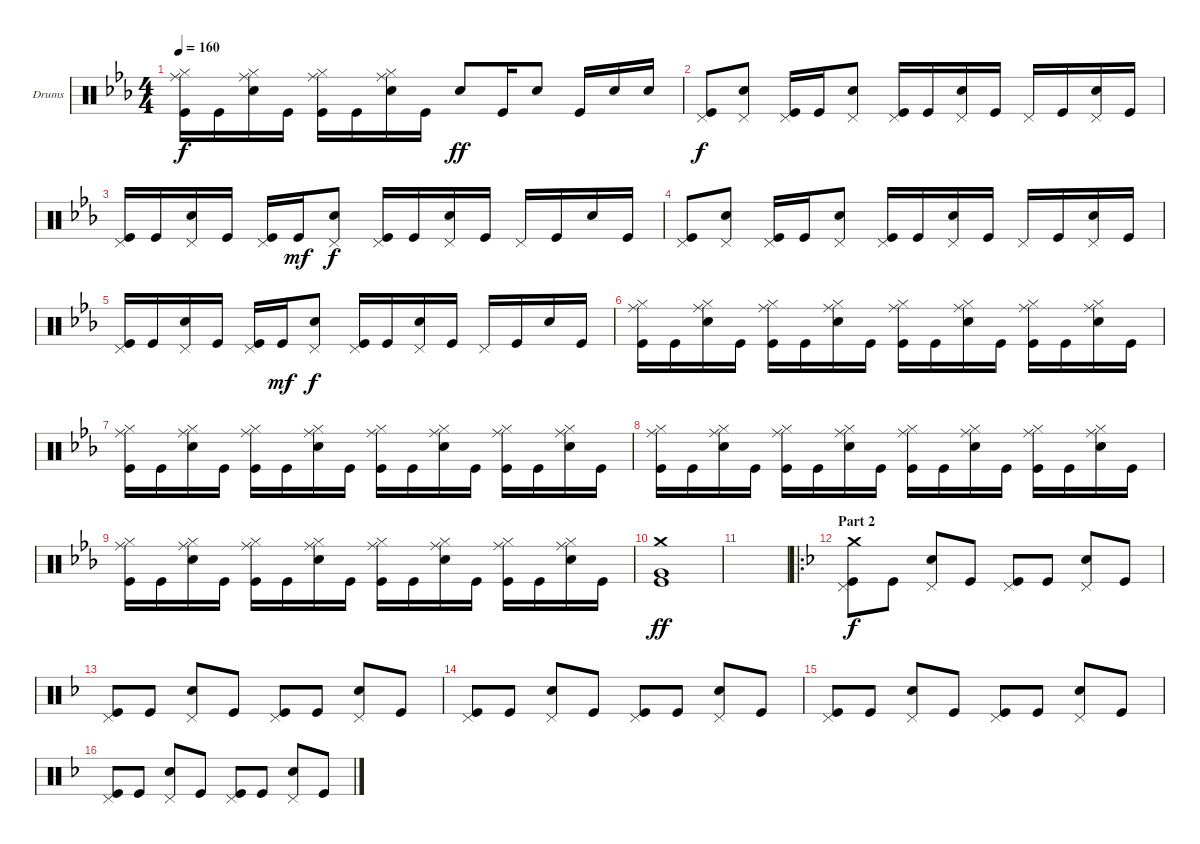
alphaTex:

\defaultSystemsLayout 4
\bracketExtendMode groupsimilarinstruments
\firstSystemTrackNameOrientation horizontal
\otherSystemsTrackNameOrientation horizontal
\track ("Drumkit" "Drums") {instrument percussion}
\staff {score}
\articulation defaults
\ts (4 4)
\tempo 160
\clef neutral
\ks cminor
("Kick (hit)" "Ride (middle)" "Hi-Hat (closed)").16{dy f} "Kick (hit)".16 ("Snare (hit) 2" "Hi-Hat (closed)" "Ride (middle)").16 "Kick (hit)".16 ("Kick (hit)" "Hi-Hat (closed)" "Ride (middle)").16 "Kick (hit)".16 ("Snare (hit) 2" "Hi-Hat (closed)" "Ride (middle)").16 "Kick (hit)".16 "Snare (hit) 2".8{dy ff} "Kick (hit)".16 "Snare (hit) 2".8 "Kick (hit)".16 "Snare (hit) 2".16 "Snare (hit) 2".16 |
("Kick (hit)" "Pedal Hi-Hat (hit)").8{dy f} ("Snare (hit) 2" "Pedal Hi-Hat (hit)").8 ("Kick (hit)" "Pedal Hi-Hat (hit)").16 "Kick (hit)".16 ("Snare (hit) 2" "Pedal Hi-Hat (hit)").8 ("Kick (hit)" "Pedal Hi-Hat (hit)").16 "Kick (hit)".16 ("Snare (hit) 2" "Pedal Hi-Hat (hit)").16 "Kick (hit)".16 "Pedal Hi-Hat (hit)".16 "Kick (hit)".16 ("Snare (hit) 2" "Pedal Hi-Hat (hit)").16 "Kick (hit)".16 |
("Kick (hit)" "Pedal Hi-Hat (hit)").16 "Kick (hit)".16 ("Snare (hit) 2" "Pedal Hi-Hat (hit)").16 "Kick (hit)".16 ("Kick (hit)" "Pedal Hi-Hat (hit)").16 "Kick (hit)".16{dy mf} ("Snare (hit) 2" "Pedal Hi-Hat (hit)").8{dy f} ("Kick (hit)" "Pedal Hi-Hat (hit)").16 "Kick (hit)".16 ("Snare (hit) 2" "Pedal Hi-Hat (hit)").16 "Kick (hit)".16 "Pedal Hi-Hat (hit)".16 "Kick (hit)".16 "Snare (hit) 2".16 "Kick (hit)".16 |
("Kick (hit)" "Pedal Hi-Hat (hit)").8 ("Snare (hit) 2" "Pedal Hi-Hat (hit)").8 ("Kick (hit)" "Pedal Hi-Hat (hit)").16 "Kick (hit)".16 ("Snare (hit) 2" "Pedal Hi-Hat (hit)").8 ("Kick (hit)" "Pedal Hi-Hat (hit)").16 "Kick (hit)".16 ("Snare (hit) 2" "Pedal Hi-Hat (hit)").16 "Kick (hit)".16 "Pedal Hi-Hat (hit)".16 "Kick (hit)".16 ("Snare (hit) 2" "Pedal Hi-Hat (hit)").16 "Kick (hit)".16 |
("Kick (hit)" "Pedal Hi-Hat (hit)").16 "Kick (hit)".16 ("Snare (hit) 2" "Pedal Hi-Hat (hit)").16 "Kick (hit)".16 ("Kick (hit)" "Pedal Hi-Hat (hit)").16 "Kick (hit)".16{dy mf} ("Snare (hit) 2" "Pedal Hi-Hat (hit)").8{dy f} ("Kick (hit)" "Pedal Hi-Hat (hit)").16 "Kick (hit)".16 ("Snare (hit) 2" "Pedal Hi-Hat (hit)").16 "Kick (hit)".16 "Pedal Hi-Hat (hit)".16 "Kick (hit)".16 "Snare (hit) 2".16 "Kick (hit)".16 |
("Kick (hit)" "Ride (middle)" "Hi-Hat (closed)").16 "Kick (hit)".16 ("Snare (hit) 2" "Hi-Hat (closed)" "Ride (middle)").16 "Kick (hit)".16 ("Kick (hit)" "Hi-Hat (closed)" "Ride (middle)").16 "Kick (hit)".16 ("Snare (hit) 2" "Hi-Hat (closed)" "Ride (middle)").16 "Kick (hit)".16 ("Kick (hit)" "Hi-Hat (closed)" "Ride (middle)").16 "Kick (hit)".16 ("Snare (hit) 2" "Hi-Hat (closed)" "Ride (middle)").16 "Kick (hit)".16 ("Kick (hit)" "Hi-Hat (closed)" "Ride (middle)").16 "Kick (hit)".16 ("Snare (hit) 2" "Hi-Hat (closed)" "Ride (middle)").16 "Kick (hit)".16 |
("Kick (hit)" "Ride (middle)" "Hi-Hat (closed)").16 "Kick (hit)".16 ("Snare (hit) 2" "Hi-Hat (closed)" "Ride (middle)").16 "Kick (hit)".16 ("Kick (hit)" "Hi-Hat (closed)" "Ride (middle)").16 "Kick (hit)".16 ("Snare (hit) 2" "Hi-Hat (closed)" "Ride (middle)").16 "Kick (hit)".16 ("Kick (hit)" "Hi-Hat (closed)" "Ride (middle)").16 "Kick (hit)".16 ("Snare (hit) 2" "Hi-Hat (closed)" "Ride (middle)").16 "Kick (hit)".16 ("Kick (hit)" "Hi-Hat (closed)" "Ride (middle)").16 "Kick (hit)".16 ("Snare (hit) 2" "Hi-Hat (closed)" "Ride (middle)").16 "Kick (hit)".16 |
("Kick (hit)" "Ride (middle)" "Hi-Hat (closed)").16 "Kick (hit)".16 ("Snare (hit) 2" "Hi-Hat (closed)" "Ride (middle)").16 "Kick (hit)".16 ("Kick (hit)" "Hi-Hat (closed)" "Ride (middle)").16 "Kick (hit)".16 ("Snare (hit) 2" "Hi-Hat (closed)" "Ride (middle)").16 "Kick (hit)".16 ("Kick (hit)" "Hi-Hat (closed)" "Ride (middle)").16 "Kick (hit)".16 ("Snare (hit) 2" "Hi-Hat (closed)" "Ride (middle)").16 "Kick (hit)".16 ("Kick (hit)" "Hi-Hat (closed)" "Ride (middle)").16 "Kick (hit)".16 ("Snare (hit) 2" "Hi-Hat (closed)" "Ride (middle)").16 "Kick (hit)".16 |
("Kick (hit)" "Ride (middle)" "Hi-Hat (closed)").16 "Kick (hit)".16 ("Snare (hit) 2" "Hi-Hat (closed)" "Ride (middle)").16 "Kick (hit)".16 ("Kick (hit)" "Hi-Hat (closed)" "Ride (middle)").16 "Kick (hit)".16 ("Snare (hit) 2" "Hi-Hat (closed)" "Ride (middle)").16 "Kick (hit)".16 ("Kick (hit)" "Hi-Hat (closed)" "Ride (middle)").16 "Kick (hit)".16 ("Snare (hit) 2" "Hi-Hat (closed)" "Ride (middle)").16 "Kick (hit)".16 ("Kick (hit)" "Hi-Hat (closed)" "Ride (middle)").16 "Kick (hit)".16 ("Snare (hit) 2" "Hi-Hat (closed)" "Ride (middle)").16 "Kick (hit)".16 |
("Very Low Tom (hit)" "Crash medium (hit)" "Kick (hit)").1{dy ff} |
|
\ro
\section ("" "Part 2")
\ks dminor
("Kick (hit)" "Pedal Hi-Hat (hit)" "Crash medium (hit)").8{dy f} "Kick (hit)".8 ("Snare (hit) 2" "Pedal Hi-Hat (hit)").8 "Kick (hit)".8 ("Kick (hit)" "Pedal Hi-Hat (hit)").8 "Kick (hit)".8 ("Snare (hit) 2" "Pedal Hi-Hat (hit)").8 "Kick (hit)".8 |
("Kick (hit)" "Pedal Hi-Hat (hit)").8 "Kick (hit)".8 ("Snare (hit) 2" "Pedal Hi-Hat (hit)").8 "Kick (hit)".8 ("Kick (hit)" "Pedal Hi-Hat (hit)").8 "Kick (hit)".8 ("Snare (hit) 2" "Pedal Hi-Hat (hit)").8 "Kick (hit)".8 |
("Kick (hit)" "Pedal Hi-Hat (hit)").8 "Kick (hit)".8 ("Snare (hit) 2" "Pedal Hi-Hat (hit)").8 "Kick (hit)".8 ("Kick (hit)" "Pedal Hi-Hat (hit)").8 "Kick (hit)".8 ("Snare (hit) 2" "Pedal Hi-Hat (hit)").8 "Kick (hit)".8 |
("Kick (hit)" "Pedal Hi-Hat (hit)").8 "Kick (hit)".8 ("Snare (hit) 2" "Pedal Hi-Hat (hit)").8 "Kick (hit)".8 ("Kick (hit)" "Pedal Hi-Hat (hit)").8 "Kick (hit)".8 ("Snare (hit) 2" "Pedal Hi-Hat (hit)").8 "Kick (hit)".8 |
("Kick (hit)" "Pedal Hi-Hat (hit)").8 "Kick (hit)".8 ("Snare (hit) 2" "Pedal Hi-Hat (hit)").8 "Kick (hit)".8 ("Kick (hit)" "Pedal Hi-Hat (hit)").8 "Kick (hit)".8 ("Snare (hit) 2" "Pedal Hi-Hat (hit)").8 "Kick (hit)".8
